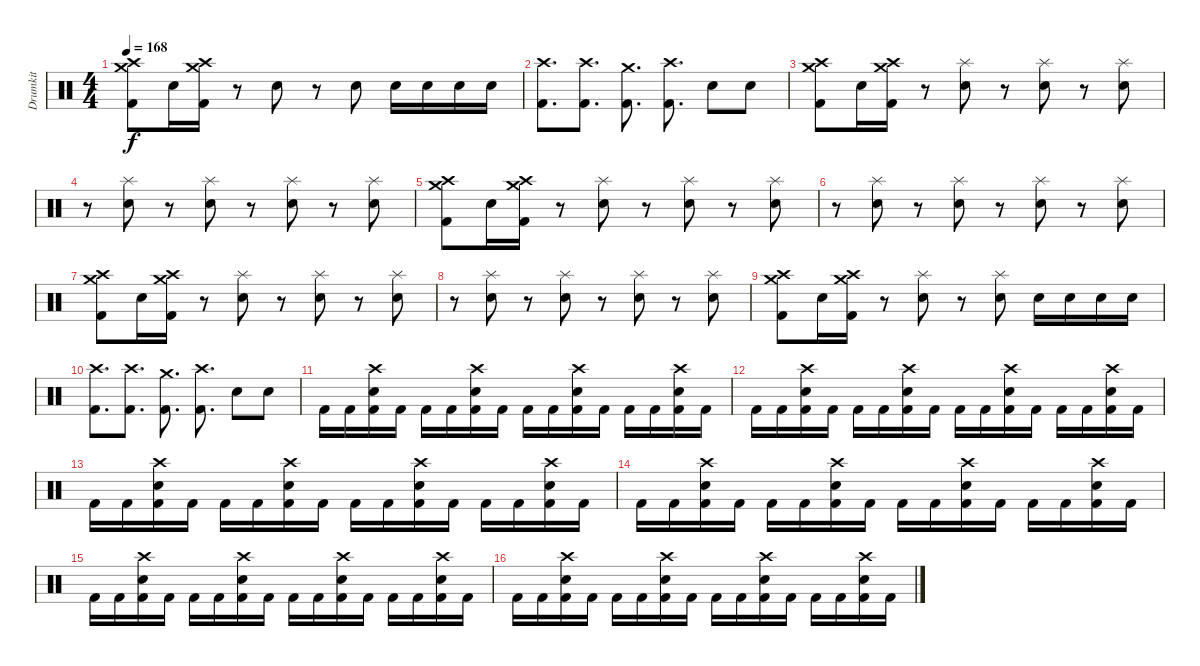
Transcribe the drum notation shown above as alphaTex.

\track ("Drumkit" "Drumkit") {instrument percussion}
\staff {score}
\articulation defaults
\ts (4 4)
\tempo 168
\clef neutral
\ks c
("Crash high (hit)" "Crash medium (hit)" "Kick (hit) 2").8{dy f} "Snare (hit) 2".16 ("Crash medium (hit)" "Crash high (hit)" "Kick (hit) 2").16 r.8 "Snare (hit) 2".8 r.8 "Snare (hit) 2".8 "Snare (hit) 2".16 "Snare (hit) 2".16 "Snare (hit) 2".16 "Snare (hit) 2".16 |
("Crash high (hit)" "Kick (hit) 2").8{d} ("Crash high (hit)" "Kick (hit) 2").8{d} ("Crash medium (hit)" "Kick (hit) 2").8{d} ("Crash high (hit)" "Kick (hit) 2").8{d} "Snare (hit) 2".8 "Snare (hit) 2".8 |
("Crash high (hit)" "Crash medium (hit)" "Kick (hit) 2").8 "Snare (hit) 2".16 ("Crash medium (hit)" "Crash high (hit)" "Kick (hit) 2").16 r.8 ("Splash (hit)" "Snare (hit) 2").8 r.8 ("Splash (hit)" "Snare (hit) 2").8 r.8 ("Splash (hit)" "Snare (hit) 2").8 |
r.8 ("Splash (hit)" "Snare (hit) 2").8 r.8 ("Splash (hit)" "Snare (hit) 2").8 r.8 ("Splash (hit)" "Snare (hit) 2").8 r.8 ("Splash (hit)" "Snare (hit) 2").8 |
("Crash high (hit)" "Crash medium (hit)" "Kick (hit) 2").8 "Snare (hit) 2".16 ("Crash medium (hit)" "Crash high (hit)" "Kick (hit) 2").16 r.8 ("Splash (hit)" "Snare (hit) 2").8 r.8 ("Splash (hit)" "Snare (hit) 2").8 r.8 ("Splash (hit)" "Snare (hit) 2").8 |
r.8 ("Splash (hit)" "Snare (hit) 2").8 r.8 ("Splash (hit)" "Snare (hit) 2").8 r.8 ("Splash (hit)" "Snare (hit) 2").8 r.8 ("Splash (hit)" "Snare (hit) 2").8 |
("Crash high (hit)" "Crash medium (hit)" "Kick (hit) 2").8 "Snare (hit) 2".16 ("Crash medium (hit)" "Crash high (hit)" "Kick (hit) 2").16 r.8 ("Splash (hit)" "Snare (hit) 2").8 r.8 ("Splash (hit)" "Snare (hit) 2").8 r.8 ("Splash (hit)" "Snare (hit) 2").8 |
r.8 ("Splash (hit)" "Snare (hit) 2").8 r.8 ("Splash (hit)" "Snare (hit) 2").8 r.8 ("Splash (hit)" "Snare (hit) 2").8 r.8 ("Splash (hit)" "Snare (hit) 2").8 |
("Crash high (hit)" "Crash medium (hit)" "Kick (hit) 2").8 "Snare (hit) 2".16 ("Crash medium (hit)" "Crash high (hit)" "Kick (hit) 2").16 r.8 ("Splash (hit)" "Snare (hit) 2").8 r.8 ("Splash (hit)" "Snare (hit) 2").8 "Snare (hit) 2".16 "Snare (hit) 2".16 "Snare (hit) 2".16 "Snare (hit) 2".16 |
("Crash high (hit)" "Kick (hit) 2").8{d} ("Crash high (hit)" "Kick (hit) 2").8{d} ("Crash medium (hit)" "Kick (hit) 2").8{d} ("Crash high (hit)" "Kick (hit) 2").8{d} "Snare (hit) 2".8 "Snare (hit) 2".8 |
"Kick (hit) 2".16 "Kick (hit) 2".16 ("Crash high (hit)" "Snare (hit) 2" "Kick (hit) 2").16 "Kick (hit) 2".16 "Kick (hit) 2".16 "Kick (hit) 2".16 ("Crash high (hit)" "Snare (hit) 2" "Kick (hit) 2").16 "Kick (hit) 2".16 "Kick (hit) 2".16 "Kick (hit) 2".16 ("Crash high (hit)" "Snare (hit) 2" "Kick (hit) 2").16 "Kick (hit) 2".16 "Kick (hit) 2".16 "Kick (hit) 2".16 ("Crash high (hit)" "Snare (hit) 2" "Kick (hit) 2").16 "Kick (hit) 2".16 |
"Kick (hit) 2".16 "Kick (hit) 2".16 ("Crash high (hit)" "Snare (hit) 2" "Kick (hit) 2").16 "Kick (hit) 2".16 "Kick (hit) 2".16 "Kick (hit) 2".16 ("Crash high (hit)" "Snare (hit) 2" "Kick (hit) 2").16 "Kick (hit) 2".16 "Kick (hit) 2".16 "Kick (hit) 2".16 ("Crash high (hit)" "Snare (hit) 2" "Kick (hit) 2").16 "Kick (hit) 2".16 "Kick (hit) 2".16 "Kick (hit) 2".16 ("Crash high (hit)" "Snare (hit) 2" "Kick (hit) 2").16 "Kick (hit) 2".16 |
"Kick (hit) 2".16 "Kick (hit) 2".16 ("Crash high (hit)" "Snare (hit) 2" "Kick (hit) 2").16 "Kick (hit) 2".16 "Kick (hit) 2".16 "Kick (hit) 2".16 ("Crash high (hit)" "Snare (hit) 2" "Kick (hit) 2").16 "Kick (hit) 2".16 "Kick (hit) 2".16 "Kick (hit) 2".16 ("Crash high (hit)" "Snare (hit) 2" "Kick (hit) 2").16 "Kick (hit) 2".16 "Kick (hit) 2".16 "Kick (hit) 2".16 ("Crash high (hit)" "Snare (hit) 2" "Kick (hit) 2").16 "Kick (hit) 2".16 |
"Kick (hit) 2".16 "Kick (hit) 2".16 ("Crash high (hit)" "Snare (hit) 2" "Kick (hit) 2").16 "Kick (hit) 2".16 "Kick (hit) 2".16 "Kick (hit) 2".16 ("Crash high (hit)" "Snare (hit) 2" "Kick (hit) 2").16 "Kick (hit) 2".16 "Kick (hit) 2".16 "Kick (hit) 2".16 ("Crash high (hit)" "Snare (hit) 2" "Kick (hit) 2").16 "Kick (hit) 2".16 "Kick (hit) 2".16 "Kick (hit) 2".16 ("Crash high (hit)" "Snare (hit) 2" "Kick (hit) 2").16 "Kick (hit) 2".16 |
"Kick (hit) 2".16 "Kick (hit) 2".16 ("Crash high (hit)" "Snare (hit) 2" "Kick (hit) 2").16 "Kick (hit) 2".16 "Kick (hit) 2".16 "Kick (hit) 2".16 ("Crash high (hit)" "Snare (hit) 2" "Kick (hit) 2").16 "Kick (hit) 2".16 "Kick (hit) 2".16 "Kick (hit) 2".16 ("Crash high (hit)" "Snare (hit) 2" "Kick (hit) 2").16 "Kick (hit) 2".16 "Kick (hit) 2".16 "Kick (hit) 2".16 ("Crash high (hit)" "Snare (hit) 2" "Kick (hit) 2").16 "Kick (hit) 2".16 |
"Kick (hit) 2".16 "Kick (hit) 2".16 ("Crash high (hit)" "Snare (hit) 2" "Kick (hit) 2").16 "Kick (hit) 2".16 "Kick (hit) 2".16 "Kick (hit) 2".16 ("Crash high (hit)" "Snare (hit) 2" "Kick (hit) 2").16 "Kick (hit) 2".16 "Kick (hit) 2".16 "Kick (hit) 2".16 ("Crash high (hit)" "Snare (hit) 2" "Kick (hit) 2").16 "Kick (hit) 2".16 "Kick (hit) 2".16 "Kick (hit) 2".16 ("Crash high (hit)" "Snare (hit) 2" "Kick (hit) 2").16 "Kick (hit) 2".16
